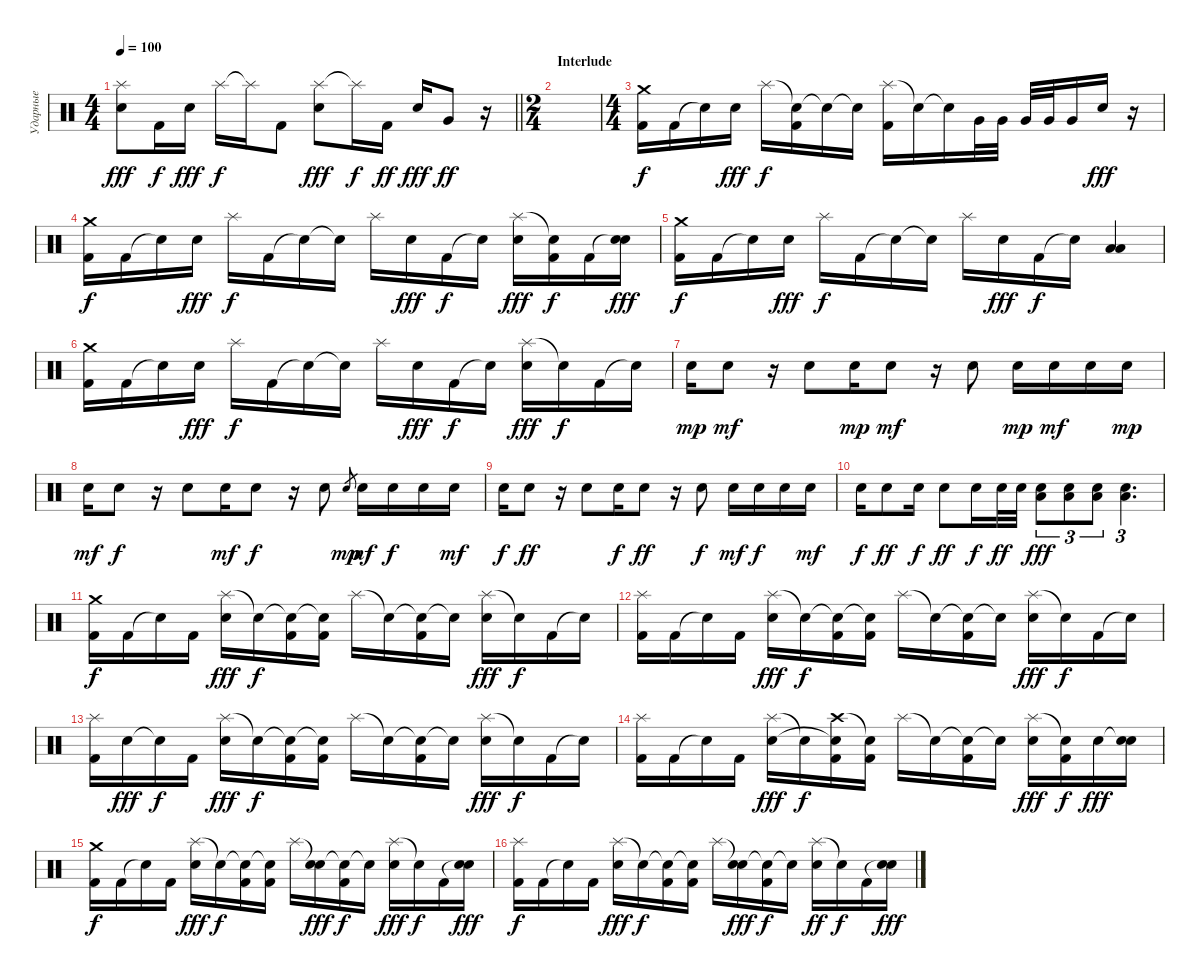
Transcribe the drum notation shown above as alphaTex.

\track ("Ударные" "Ударные") {instrument percussion}
\staff {score}
\articulation defaults
\ts (4 4)
\tempo 100
\clef neutral
\barLineRight lightlight
\ks c
("Splash (hit)" "Electric Snare (hit)").8{dy fff} "Kick (hit) 2".16{dy f} "Electric Snare (hit)".16{dy fff} "Splash (hit)".16{dy f} "Splash (hit)"{t}.16 "Kick (hit) 2".8 ("Splash (hit)" "Electric Snare (hit)").8{dy fff} "Splash (hit)"{t}.16{dy f} "Kick (hit) 2".16{dy ff} "Electric Snare (hit)".16{dy fff} "Very Low Tom (hit)".8{dy ff} r.16 |
\ts (2 4)
\section ("" "Interlude")
|
\ts (4 4)
("Crash medium (hit)" "Kick (hit) 2").16{dy f} "Kick (hit) 2".16 "Snare (hit)"{t}.16 "Electric Snare (hit)".16{dy fff} "Splash (hit)".16{dy f} ("Snare (hit)"{t} "Kick (hit) 2").16 "Snare (hit)"{t}.16 "Snare (hit)"{t}.16 ("Splash (hit)" "Kick (hit) 2").16 "Snare (hit)"{t}.16 "Snare (hit)"{t}.16 "Very Low Tom (hit)".32 "Very Low Tom (hit)".32 "Very Low Tom (hit)".32 "Very Low Tom (hit)".32 "Very Low Tom (hit)".16 "Electric Snare (hit)".16{dy fff} r.16 |
("Crash medium (hit)" "Kick (hit) 2").16{dy f} "Kick (hit) 2".16 "Snare (hit)"{t}.16 "Electric Snare (hit)".16{dy fff} "Splash (hit)".16{dy f} "Kick (hit) 2".16 "Snare (hit)"{t}.16 "Snare (hit)"{t}.16 "Splash (hit)".16 "Electric Snare (hit)".16{dy fff} "Kick (hit) 2".16{dy f} "Snare (hit)"{t}.16 ("Splash (hit)" "Electric Snare (hit)").16{dy fff} ("Snare (hit)"{t} "Kick (hit) 2").16{dy f} "Kick (hit) 2".16 ("Snare (hit)"{t} "Electric Snare (hit)").16{dy fff} |
("Crash medium (hit)" "Kick (hit) 2").16{dy f} "Kick (hit) 2".16 "Snare (hit)"{t}.16 "Electric Snare (hit)".16{dy fff} "Splash (hit)".16{dy f} "Kick (hit) 2".16 "Snare (hit)"{t}.16 "Snare (hit)"{t}.16 "Splash (hit)".16 "Electric Snare (hit)".16{dy fff} "Kick (hit) 2".16{dy f} "Snare (hit)"{t}.16 ("Low Floor Tom (hit)" "Low Floor Tom (hit)").4 |
("Crash medium (hit)" "Kick (hit) 2").16 "Kick (hit) 2".16 "Snare (hit)"{t}.16 "Electric Snare (hit)".16{dy fff} "Splash (hit)".16{dy f} "Kick (hit) 2".16 "Snare (hit)"{t}.16 "Snare (hit)"{t}.16 "Splash (hit)".16 "Electric Snare (hit)".16{dy fff} "Kick (hit) 2".16{dy f} "Snare (hit)"{t}.16 ("Splash (hit)" "Electric Snare (hit)").16{dy fff} "Snare (hit)"{t}.16{dy f} "Kick (hit) 2".16 "Snare (hit)"{t}.16 |
"Electric Snare (hit)".16{dy mp} "Electric Snare (hit)".8{dy mf} r.16 "Electric Snare (hit)".8 "Electric Snare (hit)".16{dy mp} "Electric Snare (hit)".8{dy mf} r.16 "Electric Snare (hit)".8 "Electric Snare (hit)".16{dy mp} "Electric Snare (hit)".16{dy mf} "Electric Snare (hit)".16 "Electric Snare (hit)".16{dy mp} |
"Electric Snare (hit)".16{dy mf} "Electric Snare (hit)".8{dy f} r.16 "Electric Snare (hit)".8 "Electric Snare (hit)".16{dy mf} "Electric Snare (hit)".8{dy f} r.16 "Electric Snare (hit)".8 "Electric Snare (hit)".8{gr dy mp} "Electric Snare (hit)".16{dy mf} "Electric Snare (hit)".16{dy f} "Electric Snare (hit)".16 "Electric Snare (hit)".16{dy mf} |
"Electric Snare (hit)".16{dy f} "Electric Snare (hit)".8{dy ff} r.16 "Electric Snare (hit)".8 "Electric Snare (hit)".16{dy f} "Electric Snare (hit)".8{dy ff} r.16 "Electric Snare (hit)".8{dy f} "Electric Snare (hit)".16{dy mf} "Electric Snare (hit)".16{dy f} "Electric Snare (hit)".16 "Electric Snare (hit)".16{dy mf} |
"Electric Snare (hit)".16{dy f} "Electric Snare (hit)".8{dy ff} "Electric Snare (hit)".16{dy f} "Electric Snare (hit)".8{dy ff} "Electric Snare (hit)".16{dy f} "Electric Snare (hit)".32{dy ff} "Electric Snare (hit)".32 ("Low Floor Tom (hit)" "Electric Snare (hit)").8{tu (3 2) dy fff} ("Low Floor Tom (hit)" "Electric Snare (hit)").8{tu (3 2)} ("Low Floor Tom (hit)" "Electric Snare (hit)").8{tu (3 2)} ("Low Floor Tom (hit)" "Electric Snare (hit)").4{d tu (3 2)} |
("Crash medium (hit)" "Kick (hit) 2").16{dy f} "Kick (hit) 2".16 "Snare (hit)"{t}.16 "Kick (hit) 2".16 ("Splash (hit)" "Electric Snare (hit)").16{dy fff} "Snare (hit)"{t}.16{dy f} ("Snare (hit)"{t} "Kick (hit) 2").16 ("Snare (hit)"{t} "Kick (hit) 2").16 "Splash (hit)".16 "Snare (hit)"{t}.16 ("Snare (hit)"{t} "Kick (hit) 2").16 "Snare (hit)"{t}.16 ("Splash (hit)" "Electric Snare (hit)").16{dy fff} "Snare (hit)"{t}.16{dy f} "Kick (hit) 2".16 "Snare (hit)"{t}.16 |
("Splash (hit)" "Kick (hit) 2").16 "Kick (hit) 2".16 "Snare (hit)"{t}.16 "Kick (hit) 2".16 ("Splash (hit)" "Electric Snare (hit)").16{dy fff} "Snare (hit)"{t}.16{dy f} ("Snare (hit)"{t} "Kick (hit) 2").16 ("Snare (hit)"{t} "Kick (hit) 2").16 "Splash (hit)".16 "Snare (hit)"{t}.16 ("Snare (hit)"{t} "Kick (hit) 2").16 "Snare (hit)"{t}.16 ("Splash (hit)" "Electric Snare (hit)").16{dy fff} "Snare (hit)"{t}.16{dy f} "Kick (hit) 2".16 "Snare (hit)"{t}.16 |
("Splash (hit)" "Kick (hit) 2").16 "Electric Snare (hit)".16{dy fff} "Snare (hit)"{t}.16{dy f} "Kick (hit) 2".16 ("Splash (hit)" "Electric Snare (hit)").16{dy fff} "Snare (hit)"{t}.16{dy f} ("Snare (hit)"{t} "Kick (hit) 2").16 ("Snare (hit)"{t} "Kick (hit) 2").16 "Splash (hit)".16 "Snare (hit)"{t}.16 ("Snare (hit)"{t} "Kick (hit) 2").16 "Snare (hit)"{t}.16 ("Splash (hit)" "Electric Snare (hit)").16{dy fff} "Snare (hit)"{t}.16{dy f} "Kick (hit) 2".16 "Snare (hit)"{t}.16 |
("Splash (hit)" "Kick (hit) 2").16 "Kick (hit) 2".16 "Snare (hit)"{t}.16 "Kick (hit) 2".16 ("Splash (hit)" "Electric Snare (hit)").16{dy fff} "Snare (hit)"{t}.16{dy f} ("Crash high (hit)" "Snare (hit)"{t} "Kick (hit) 2").16 ("Snare (hit)"{t} "Kick (hit) 2").16 "Splash (hit)".16 "Snare (hit)"{t}.16 ("Snare (hit)"{t} "Kick (hit) 2").16 "Snare (hit)"{t}.16 ("Splash (hit)" "Electric Snare (hit)").16{dy fff} ("Snare (hit)"{t} "Kick (hit) 2").16{dy f} "Electric Snare (hit)".16{dy fff} ("Snare (hit)"{t} "Electric Snare (hit)").16 |
("Crash medium (hit)" "Kick (hit) 2").16{dy f} "Kick (hit) 2".16 "Snare (hit)"{t}.16 "Kick (hit) 2".16 ("Splash (hit)" "Electric Snare (hit)").16{dy fff} "Snare (hit)"{t}.16{dy f} ("Snare (hit)"{t} "Kick (hit) 2").16 ("Snare (hit)"{t} "Kick (hit) 2").16 "Splash (hit)".16 ("Snare (hit)"{t} "Electric Snare (hit)").16{dy fff} ("Snare (hit)"{t} "Kick (hit) 2").16{dy f} "Snare (hit)"{t}.16 ("Splash (hit)" "Electric Snare (hit)").16{dy fff} "Snare (hit)"{t}.16{dy f} "Kick (hit) 2".16 ("Snare (hit)"{t} "Electric Snare (hit)").16{dy fff} |
("Splash (hit)" "Kick (hit) 2").16{dy f} "Kick (hit) 2".16 "Snare (hit)"{t}.16 "Kick (hit) 2".16 ("Splash (hit)" "Electric Snare (hit)").16{dy fff} "Snare (hit)"{t}.16{dy f} ("Snare (hit)"{t} "Kick (hit) 2").16 ("Snare (hit)"{t} "Kick (hit) 2").16 "Splash (hit)".16 ("Snare (hit)"{t} "Electric Snare (hit)").16{dy fff} ("Snare (hit)"{t} "Kick (hit) 2").16{dy f} "Snare (hit)"{t}.16 ("Splash (hit)" "Electric Snare (hit)").16{dy ff} "Snare (hit)"{t}.16{dy f} "Kick (hit) 2".16 ("Snare (hit)"{t} "Electric Snare (hit)").16{dy fff}
